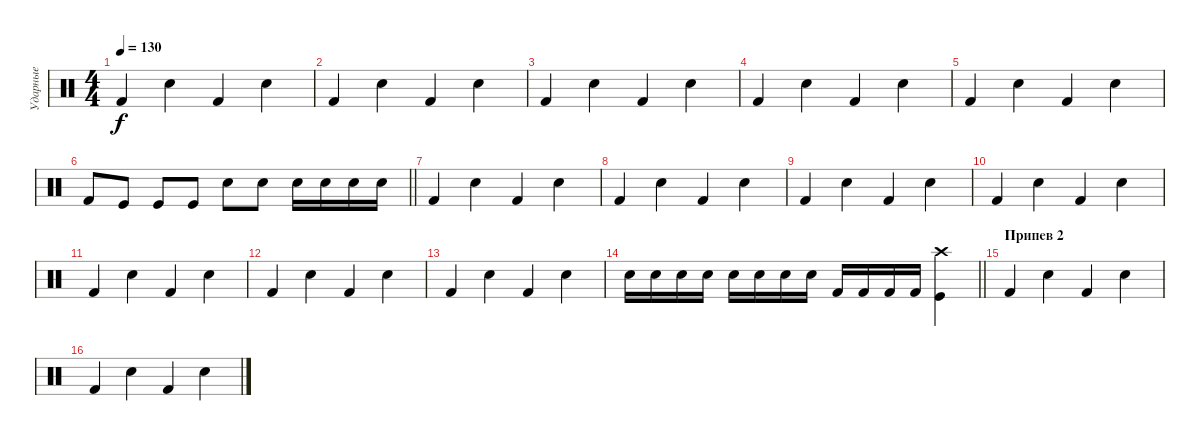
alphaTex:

\track ("Ударные" "Ударные") {instrument percussion}
\staff {score}
\articulation defaults
\ts (4 4)
\tempo 130
\clef neutral
\ks c "Kick (hit) 2".4{dy f} "Electric Snare (hit)".4 "Kick (hit) 2".4 "Electric Snare (hit)".4
|
"Kick (hit) 2".4 "Electric Snare (hit)".4 "Kick (hit) 2".4 "Electric Snare (hit)".4 |
"Kick (hit) 2".4 "Electric Snare (hit)".4 "Kick (hit) 2".4 "Electric Snare (hit)".4 |
"Kick (hit) 2".4 "Electric Snare (hit)".4 "Kick (hit) 2".4 "Electric Snare (hit)".4 |
"Kick (hit) 2".4 "Electric Snare (hit)".4 "Kick (hit) 2".4 "Electric Snare (hit)".4 |
\barLineRight lightlight "Kick (hit) 2".8 "Kick (hit)".8 "Kick (hit)".8 "Kick (hit)".8 "Electric Snare (hit)".8 "Electric Snare (hit)".8 "Electric Snare (hit)".16 "Electric Snare (hit)".16 "Electric Snare (hit)".16 "Electric Snare (hit)".16
|
"Kick (hit) 2".4 "Electric Snare (hit)".4 "Kick (hit) 2".4 "Electric Snare (hit)".4 |
"Kick (hit) 2".4 "Electric Snare (hit)".4 "Kick (hit) 2".4 "Electric Snare (hit)".4 |
"Kick (hit) 2".4 "Electric Snare (hit)".4 "Kick (hit) 2".4 "Electric Snare (hit)".4 |
"Kick (hit) 2".4 "Electric Snare (hit)".4 "Kick (hit) 2".4 "Electric Snare (hit)".4 |
"Kick (hit) 2".4 "Electric Snare (hit)".4 "Kick (hit) 2".4 "Electric Snare (hit)".4 |
"Kick (hit) 2".4 "Electric Snare (hit)".4 "Kick (hit) 2".4 "Electric Snare (hit)".4 |
"Kick (hit) 2".4 "Electric Snare (hit)".4 "Kick (hit) 2".4 "Electric Snare (hit)".4 |
\barLineRight lightlight "Electric Snare (hit)".16 "Electric Snare (hit)".16 "Electric Snare (hit)".16 "Electric Snare (hit)".16 "Electric Snare (hit)".16 "Electric Snare (hit)".16 "Electric Snare (hit)".16 "Electric Snare (hit)".16 "Kick (hit) 2".16 "Kick (hit) 2".16 "Kick (hit) 2".16 "Kick (hit) 2".16
("Crash high (hit)" "Kick (hit)").4 |
\section ("" "Припев 2")
"Kick (hit) 2".4 "Electric Snare (hit)".4 "Kick (hit) 2".4 "Electric Snare (hit)".4 |
"Kick (hit) 2".4 "Electric Snare (hit)".4 "Kick (hit) 2".4 "Electric Snare (hit)".4
